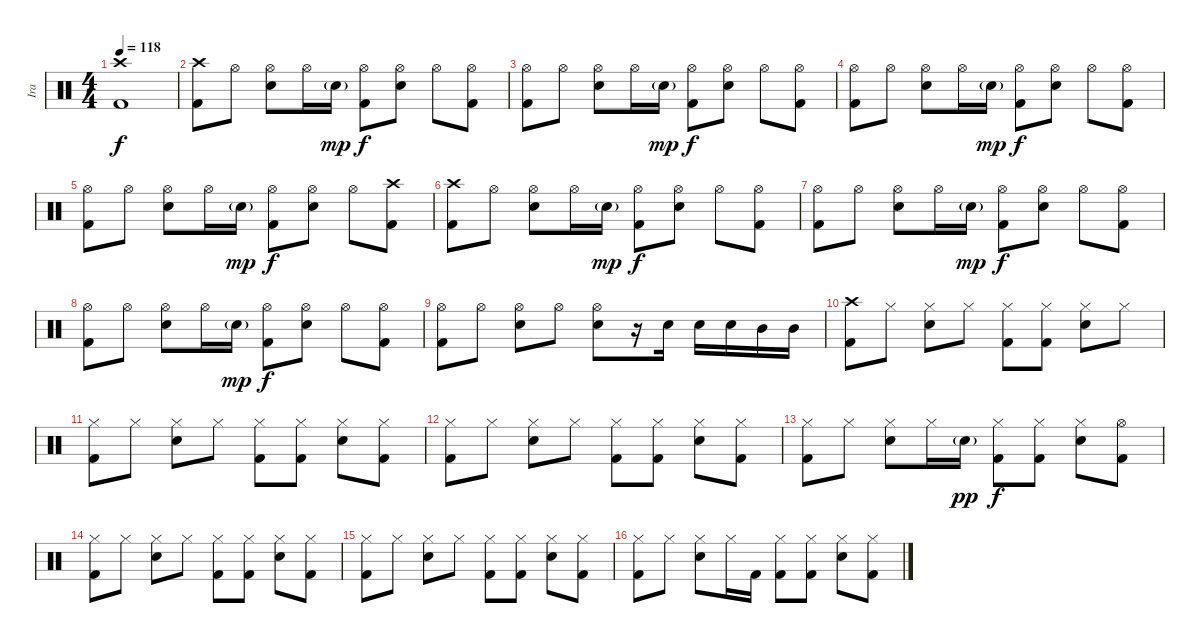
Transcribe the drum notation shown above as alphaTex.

\track ("Ira" "Ira") {instrument percussion}
\staff {score}
\articulation defaults
\ts (4 4)
\tempo 118
\clef neutral
\ks c
("Crash high (hit)" "Kick (hit) 2").1{dy f} |
("Crash high (hit)" "Kick (hit) 2").8 "Hi-Hat (open)".8 ("Hi-Hat (open)" "Electric Snare (hit)").8 "Hi-Hat (open)".16 "Electric Snare (hit)"{g}.16{dy mp} ("Hi-Hat (open)" "Kick (hit) 2").8{dy f} ("Hi-Hat (open)" "Electric Snare (hit)").8 "Hi-Hat (open)".8 ("Hi-Hat (open)" "Kick (hit) 2").8 |
("Hi-Hat (open)" "Kick (hit) 2").8 "Hi-Hat (open)".8 ("Hi-Hat (open)" "Electric Snare (hit)").8 "Hi-Hat (open)".16 "Electric Snare (hit)"{g}.16{dy mp} ("Hi-Hat (open)" "Kick (hit) 2").8{dy f} ("Hi-Hat (open)" "Electric Snare (hit)").8 "Hi-Hat (open)".8 ("Hi-Hat (open)" "Kick (hit) 2").8 |
("Hi-Hat (open)" "Kick (hit) 2").8 "Hi-Hat (open)".8 ("Hi-Hat (open)" "Electric Snare (hit)").8 "Hi-Hat (open)".16 "Electric Snare (hit)"{g}.16{dy mp} ("Hi-Hat (open)" "Kick (hit) 2").8{dy f} ("Hi-Hat (open)" "Electric Snare (hit)").8 "Hi-Hat (open)".8 ("Hi-Hat (open)" "Kick (hit) 2").8 |
("Hi-Hat (open)" "Kick (hit) 2").8 "Hi-Hat (open)".8 ("Hi-Hat (open)" "Electric Snare (hit)").8 "Hi-Hat (open)".16 "Electric Snare (hit)"{g}.16{dy mp} ("Hi-Hat (open)" "Kick (hit) 2").8{dy f} ("Hi-Hat (open)" "Electric Snare (hit)").8 "Hi-Hat (open)".8 ("Crash high (hit)" "Kick (hit) 2").8 |
("Crash high (hit)" "Kick (hit) 2").8 "Hi-Hat (open)".8 ("Hi-Hat (open)" "Electric Snare (hit)").8 "Hi-Hat (open)".16 "Electric Snare (hit)"{g}.16{dy mp} ("Hi-Hat (open)" "Kick (hit) 2").8{dy f} ("Hi-Hat (open)" "Electric Snare (hit)").8 "Hi-Hat (open)".8 ("Hi-Hat (open)" "Kick (hit) 2").8 |
("Hi-Hat (open)" "Kick (hit) 2").8 "Hi-Hat (open)".8 ("Hi-Hat (open)" "Electric Snare (hit)").8 "Hi-Hat (open)".16 "Electric Snare (hit)"{g}.16{dy mp} ("Hi-Hat (open)" "Kick (hit) 2").8{dy f} ("Hi-Hat (open)" "Electric Snare (hit)").8 "Hi-Hat (open)".8 ("Hi-Hat (open)" "Kick (hit) 2").8 |
("Hi-Hat (open)" "Kick (hit) 2").8 "Hi-Hat (open)".8 ("Hi-Hat (open)" "Electric Snare (hit)").8 "Hi-Hat (open)".16 "Electric Snare (hit)"{g}.16{dy mp} ("Hi-Hat (open)" "Kick (hit) 2").8{dy f} ("Hi-Hat (open)" "Electric Snare (hit)").8 "Hi-Hat (open)".8 ("Hi-Hat (open)" "Kick (hit) 2").8 |
("Hi-Hat (open)" "Kick (hit) 2").8 "Hi-Hat (open)".8 ("Hi-Hat (open)" "Electric Snare (hit)").8 "Hi-Hat (open)".8 ("Hi-Hat (open)" "Electric Snare (hit)").8 r.16 "Electric Snare (hit)".16 "Electric Snare (hit)".16 "Electric Snare (hit)".16 "Mid Tom (hit)".16 "Mid Tom (hit)".16 |
("Crash high (hit)" "Kick (hit) 2").8 "Hi-Hat (closed)".8 ("Hi-Hat (closed)" "Electric Snare (hit)").8 "Hi-Hat (closed)".8 ("Hi-Hat (closed)" "Kick (hit) 2").8 ("Hi-Hat (closed)" "Kick (hit) 2").8 ("Hi-Hat (closed)" "Electric Snare (hit)").8 "Hi-Hat (closed)".8 |
("Hi-Hat (closed)" "Kick (hit) 2").8 "Hi-Hat (closed)".8 ("Hi-Hat (closed)" "Electric Snare (hit)").8 "Hi-Hat (closed)".8 ("Hi-Hat (closed)" "Kick (hit) 2").8 ("Hi-Hat (closed)" "Kick (hit) 2").8 ("Hi-Hat (closed)" "Electric Snare (hit)").8 ("Hi-Hat (closed)" "Kick (hit) 2").8 |
("Hi-Hat (closed)" "Kick (hit) 2").8 "Hi-Hat (closed)".8 ("Hi-Hat (closed)" "Electric Snare (hit)").8 "Hi-Hat (closed)".8 ("Hi-Hat (closed)" "Kick (hit) 2").8 ("Hi-Hat (closed)" "Kick (hit) 2").8 ("Hi-Hat (closed)" "Electric Snare (hit)").8 ("Hi-Hat (closed)" "Kick (hit) 2").8 |
("Hi-Hat (closed)" "Kick (hit) 2").8 "Hi-Hat (closed)".8 ("Hi-Hat (closed)" "Electric Snare (hit)").8 "Hi-Hat (closed)".16 "Electric Snare (hit)"{g}.16{dy pp} ("Hi-Hat (closed)" "Kick (hit) 2").8{dy f} ("Hi-Hat (closed)" "Kick (hit) 2").8 ("Hi-Hat (closed)" "Electric Snare (hit)").8 ("Hi-Hat (open)" "Kick (hit) 2").8 |
("Hi-Hat (closed)" "Kick (hit) 2").8 "Hi-Hat (closed)".8 ("Hi-Hat (closed)" "Electric Snare (hit)").8 "Hi-Hat (closed)".8 ("Hi-Hat (closed)" "Kick (hit) 2").8 ("Hi-Hat (closed)" "Kick (hit) 2").8 ("Hi-Hat (closed)" "Electric Snare (hit)").8 ("Hi-Hat (closed)" "Kick (hit) 2").8 |
("Hi-Hat (closed)" "Kick (hit) 2").8 "Hi-Hat (closed)".8 ("Hi-Hat (closed)" "Electric Snare (hit)").8 "Hi-Hat (closed)".8 ("Hi-Hat (closed)" "Kick (hit) 2").8 ("Hi-Hat (closed)" "Kick (hit) 2").8 ("Hi-Hat (closed)" "Electric Snare (hit)").8 ("Hi-Hat (closed)" "Kick (hit) 2").8 |
("Hi-Hat (closed)" "Kick (hit) 2").8 "Hi-Hat (closed)".8 ("Hi-Hat (closed)" "Electric Snare (hit)").8 "Hi-Hat (closed)".16 "Kick (hit) 2".16 ("Hi-Hat (closed)" "Kick (hit) 2").8 ("Hi-Hat (closed)" "Kick (hit) 2").8 ("Hi-Hat (closed)" "Electric Snare (hit)").8 ("Hi-Hat (closed)" "Kick (hit) 2").8
